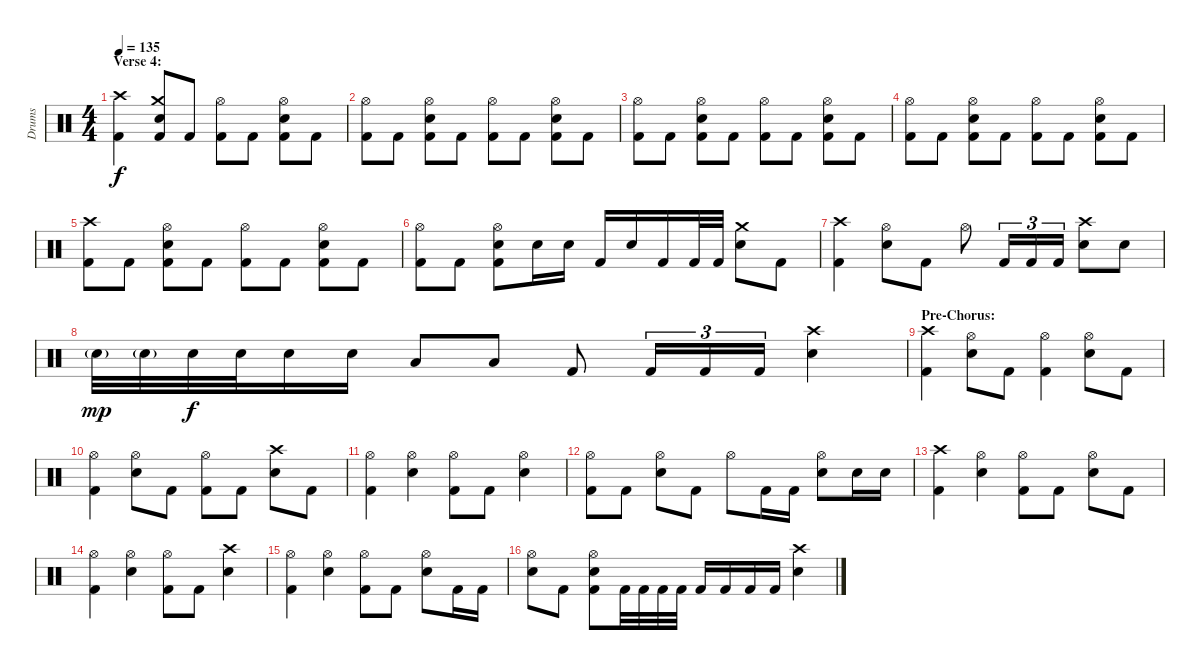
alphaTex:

\track ("Drums" "Drums") {instrument percussion}
\staff {score}
\articulation defaults
\ts (4 4)
\section ("" "Verse 4:")
\tempo 135
\clef neutral
\ks c
("Crash high (hit)" "Kick (hit) 2").4{dy f} ("Crash medium (hit)" "Electric Snare (hit)" "Kick (hit) 2").8 "Kick (hit) 2".8 ("Hi-Hat (open)" "Kick (hit) 2").8 "Kick (hit) 2".8 ("Hi-Hat (open)" "Electric Snare (hit)" "Kick (hit) 2").8 "Kick (hit) 2".8 |
("Hi-Hat (open)" "Kick (hit) 2").8 "Kick (hit) 2".8 ("Hi-Hat (open)" "Electric Snare (hit)" "Kick (hit) 2").8 "Kick (hit) 2".8 ("Hi-Hat (open)" "Kick (hit) 2").8 "Kick (hit) 2".8 ("Hi-Hat (open)" "Electric Snare (hit)" "Kick (hit) 2").8 "Kick (hit) 2".8 |
("Hi-Hat (open)" "Kick (hit) 2").8 "Kick (hit) 2".8 ("Hi-Hat (open)" "Electric Snare (hit)" "Kick (hit) 2").8 "Kick (hit) 2".8 ("Hi-Hat (open)" "Kick (hit) 2").8 "Kick (hit) 2".8 ("Hi-Hat (open)" "Electric Snare (hit)" "Kick (hit) 2").8 "Kick (hit) 2".8 |
("Hi-Hat (open)" "Kick (hit) 2").8 "Kick (hit) 2".8 ("Hi-Hat (open)" "Electric Snare (hit)" "Kick (hit) 2").8 "Kick (hit) 2".8 ("Hi-Hat (open)" "Kick (hit) 2").8 "Kick (hit) 2".8 ("Hi-Hat (open)" "Electric Snare (hit)" "Kick (hit) 2").8 "Kick (hit) 2".8 |
("Crash high (hit)" "Kick (hit) 2").8 "Kick (hit) 2".8 ("Hi-Hat (open)" "Electric Snare (hit)" "Kick (hit) 2").8 "Kick (hit) 2".8 ("Hi-Hat (open)" "Kick (hit) 2").8 "Kick (hit) 2".8 ("Hi-Hat (open)" "Electric Snare (hit)" "Kick (hit) 2").8 "Kick (hit) 2".8 |
("Hi-Hat (open)" "Kick (hit) 2").8 "Kick (hit) 2".8 ("Hi-Hat (open)" "Electric Snare (hit)" "Kick (hit) 2").8 "Electric Snare (hit)".16 "Electric Snare (hit)".16 "Kick (hit) 2".16 "Electric Snare (hit)".16 "Kick (hit) 2".16 "Kick (hit) 2".32 "Kick (hit) 2".32 ("Crash medium (hit)" "Electric Snare (hit)").8 "Kick (hit) 2".8 |
("Crash high (hit)" "Kick (hit) 2").4 ("Hi-Hat (open)" "Electric Snare (hit)").8 "Kick (hit) 2".8 "Hi-Hat (open)".8 "Kick (hit) 2".16{tu (3 2)} "Kick (hit) 2".16{tu (3 2)} "Kick (hit) 2".16{tu (3 2)} ("Crash high (hit)" "Electric Snare (hit)").8 "Electric Snare (hit)".8 |
"Electric Snare (hit)"{g}.32{dy mp} "Electric Snare (hit)"{g}.32 "Electric Snare (hit)".32{dy f} "Electric Snare (hit)".32 "Electric Snare (hit)".16 "Electric Snare (hit)".16 "Low Tom (hit)".8 "Low Tom (hit)".8 "Kick (hit) 2".8 "Kick (hit) 2".16{tu (3 2)} "Kick (hit) 2".16{tu (3 2)} "Kick (hit) 2".16{tu (3 2)} ("Crash high (hit)" "Electric Snare (hit)").4 |
\section ("" "Pre-Chorus:")
("Crash high (hit)" "Kick (hit) 2").4 ("Hi-Hat (open)" "Electric Snare (hit)").8 "Kick (hit) 2".8 ("Hi-Hat (open)" "Kick (hit) 2").4 ("Hi-Hat (open)" "Electric Snare (hit)").8 "Kick (hit) 2".8 |
("Hi-Hat (open)" "Kick (hit) 2").4 ("Hi-Hat (open)" "Electric Snare (hit)").8 "Kick (hit) 2".8 ("Hi-Hat (open)" "Kick (hit) 2").8 "Kick (hit) 2".8 ("Crash high (hit)" "Electric Snare (hit)").8 "Kick (hit) 2".8 |
("Hi-Hat (open)" "Kick (hit) 2").4 ("Hi-Hat (open)" "Electric Snare (hit)").4 ("Hi-Hat (open)" "Kick (hit) 2").8 "Kick (hit) 2".8 ("Hi-Hat (open)" "Electric Snare (hit)").4 |
("Hi-Hat (open)" "Kick (hit) 2").8 "Kick (hit) 2".8 ("Hi-Hat (open)" "Electric Snare (hit)").8 "Kick (hit) 2".8 "Hi-Hat (open)".8 "Kick (hit) 2".16 "Kick (hit) 2".16 ("Hi-Hat (open)" "Electric Snare (hit)").8 "Electric Snare (hit)".16 "Electric Snare (hit)".16 |
("Crash high (hit)" "Kick (hit) 2").4 ("Hi-Hat (open)" "Electric Snare (hit)").4 ("Hi-Hat (open)" "Kick (hit) 2").8 "Kick (hit) 2".8 ("Hi-Hat (open)" "Electric Snare (hit)").8 "Kick (hit) 2".8 |
("Hi-Hat (open)" "Kick (hit) 2").4 ("Hi-Hat (open)" "Electric Snare (hit)").4 ("Hi-Hat (open)" "Kick (hit) 2").8 "Kick (hit) 2".8 ("Crash high (hit)" "Electric Snare (hit)").4 |
("Hi-Hat (open)" "Kick (hit) 2").4 ("Hi-Hat (open)" "Electric Snare (hit)").4 ("Hi-Hat (open)" "Kick (hit) 2").8 "Kick (hit) 2".8 ("Hi-Hat (open)" "Electric Snare (hit)").8 "Kick (hit) 2".16 "Kick (hit) 2".16 |
("Hi-Hat (open)" "Electric Snare (hit)").8 "Kick (hit) 2".8 ("Hi-Hat (open)" "Electric Snare (hit)" "Kick (hit) 2").8 "Kick (hit) 2".32 "Kick (hit) 2".32 "Kick (hit) 2".32 "Kick (hit) 2".32 "Kick (hit) 2".16 "Kick (hit) 2".16 "Kick (hit) 2".16 "Kick (hit) 2".16 ("Crash high (hit)" "Electric Snare (hit)").4
